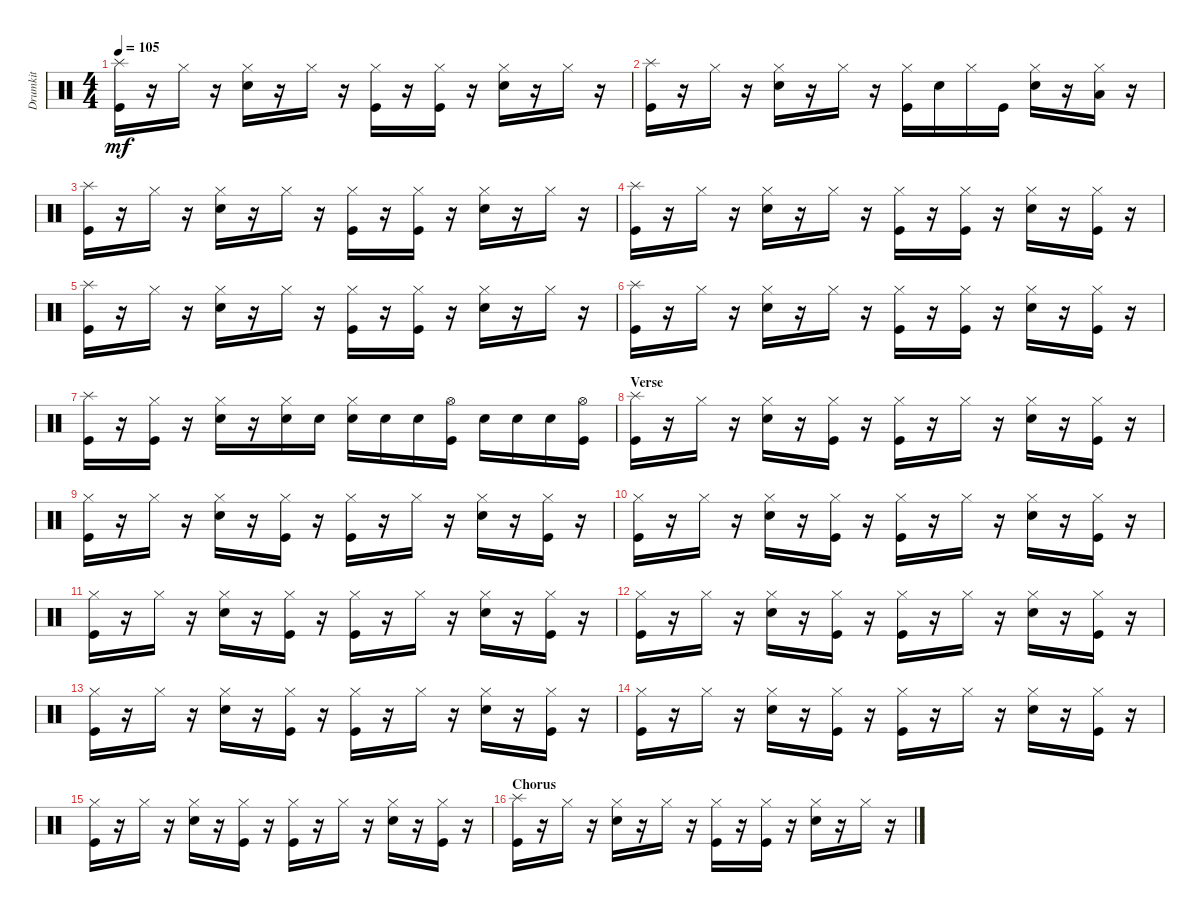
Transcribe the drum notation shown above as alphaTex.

\track ("Drumkit" "Drumkit") {instrument percussion}
\staff {score}
\articulation defaults
\ts (4 4)
\tempo 105
\clef neutral
\ks c
("Kick (hit)" "Splash (hit)").16{dy mf} r.16 "Hi-Hat (closed)".16 r.16 ("Hi-Hat (closed)" "Snare (hit) 2").16 r.16 "Hi-Hat (closed)".16 r.16 ("Hi-Hat (closed)" "Kick (hit)").16 r.16 ("Hi-Hat (closed)" "Kick (hit)").16 r.16 ("Hi-Hat (closed)" "Snare (hit) 2").16 r.16 "Hi-Hat (closed)".16 r.16 |
("Kick (hit)" "Splash (hit)").16 r.16 "Hi-Hat (closed)".16 r.16 ("Hi-Hat (closed)" "Snare (hit) 2").16 r.16 "Hi-Hat (closed)".16 r.16 ("Hi-Hat (closed)" "Kick (hit)").16 "Snare (hit) 2".16 "Hi-Hat (closed)".16 "Kick (hit)".16 ("Hi-Hat (closed)" "Snare (hit) 2").16 r.16 ("Low Tom (hit)" "Hi-Hat (closed)").16 r.16 |
("Kick (hit)" "Splash (hit)").16 r.16 "Hi-Hat (closed)".16 r.16 ("Hi-Hat (closed)" "Snare (hit) 2").16 r.16 "Hi-Hat (closed)".16 r.16 ("Hi-Hat (closed)" "Kick (hit)").16 r.16 ("Hi-Hat (closed)" "Kick (hit)").16 r.16 ("Hi-Hat (closed)" "Snare (hit) 2").16 r.16 "Hi-Hat (closed)".16 r.16 |
("Kick (hit)" "Splash (hit)").16 r.16 "Hi-Hat (closed)".16 r.16 ("Hi-Hat (closed)" "Snare (hit) 2").16 r.16 "Hi-Hat (closed)".16 r.16 ("Hi-Hat (closed)" "Kick (hit)").16 r.16 ("Hi-Hat (closed)" "Kick (hit)").16 r.16 ("Hi-Hat (closed)" "Snare (hit) 2").16 r.16 ("Hi-Hat (closed)" "Kick (hit)").16 r.16 |
("Kick (hit)" "Splash (hit)").16 r.16 "Hi-Hat (closed)".16 r.16 ("Hi-Hat (closed)" "Snare (hit) 2").16 r.16 "Hi-Hat (closed)".16 r.16 ("Hi-Hat (closed)" "Kick (hit)").16 r.16 ("Hi-Hat (closed)" "Kick (hit)").16 r.16 ("Hi-Hat (closed)" "Snare (hit) 2").16 r.16 "Hi-Hat (closed)".16 r.16 |
("Kick (hit)" "Splash (hit)").16 r.16 "Hi-Hat (closed)".16 r.16 ("Hi-Hat (closed)" "Snare (hit) 2").16 r.16 "Hi-Hat (closed)".16 r.16 ("Hi-Hat (closed)" "Kick (hit)").16 r.16 ("Hi-Hat (closed)" "Kick (hit)").16 r.16 ("Hi-Hat (closed)" "Snare (hit) 2").16 r.16 ("Hi-Hat (closed)" "Kick (hit)").16 r.16 |
("Kick (hit)" "Splash (hit)").16 r.16 ("Hi-Hat (closed)" "Kick (hit)").16 r.16 ("Hi-Hat (closed)" "Snare (hit) 2").16 r.16 ("Hi-Hat (closed)" "Snare (hit) 2").16 "Snare (hit) 2".16 ("Hi-Hat (closed)" "Snare (hit) 2").16 "Snare (hit) 2".16 "Snare (hit) 2".16 ("Kick (hit)" "Hi-Hat (open)").16 "Snare (hit) 2".16 "Snare (hit) 2".16 "Snare (hit) 2".16 ("Kick (hit)" "Hi-Hat (open)").16 |
\section ("" "Verse")
("Kick (hit)" "Splash (hit)").16 r.16 "Hi-Hat (closed)".16 r.16 ("Hi-Hat (closed)" "Snare (hit) 2").16 r.16 ("Hi-Hat (closed)" "Kick (hit)").16 r.16 ("Hi-Hat (closed)" "Kick (hit)").16 r.16 "Hi-Hat (closed)".16 r.16 ("Hi-Hat (closed)" "Snare (hit) 2").16 r.16 ("Hi-Hat (closed)" "Kick (hit)").16 r.16 |
("Kick (hit)" "Hi-Hat (closed)").16 r.16 "Hi-Hat (closed)".16 r.16 ("Hi-Hat (closed)" "Snare (hit) 2").16 r.16 ("Hi-Hat (closed)" "Kick (hit)").16 r.16 ("Hi-Hat (closed)" "Kick (hit)").16 r.16 "Hi-Hat (closed)".16 r.16 ("Hi-Hat (closed)" "Snare (hit) 2").16 r.16 ("Hi-Hat (closed)" "Kick (hit)").16 r.16 |
("Kick (hit)" "Hi-Hat (closed)").16 r.16 "Hi-Hat (closed)".16 r.16 ("Hi-Hat (closed)" "Snare (hit) 2").16 r.16 ("Hi-Hat (closed)" "Kick (hit)").16 r.16 ("Hi-Hat (closed)" "Kick (hit)").16 r.16 "Hi-Hat (closed)".16 r.16 ("Hi-Hat (closed)" "Snare (hit) 2").16 r.16 ("Hi-Hat (closed)" "Kick (hit)").16 r.16 |
("Kick (hit)" "Hi-Hat (closed)").16 r.16 "Hi-Hat (closed)".16 r.16 ("Hi-Hat (closed)" "Snare (hit) 2").16 r.16 ("Hi-Hat (closed)" "Kick (hit)").16 r.16 ("Hi-Hat (closed)" "Kick (hit)").16 r.16 "Hi-Hat (closed)".16 r.16 ("Hi-Hat (closed)" "Snare (hit) 2").16 r.16 ("Hi-Hat (closed)" "Kick (hit)").16 r.16 |
("Kick (hit)" "Hi-Hat (closed)").16 r.16 "Hi-Hat (closed)".16 r.16 ("Hi-Hat (closed)" "Snare (hit) 2").16 r.16 ("Hi-Hat (closed)" "Kick (hit)").16 r.16 ("Hi-Hat (closed)" "Kick (hit)").16 r.16 "Hi-Hat (closed)".16 r.16 ("Hi-Hat (closed)" "Snare (hit) 2").16 r.16 ("Hi-Hat (closed)" "Kick (hit)").16 r.16 |
("Kick (hit)" "Hi-Hat (closed)").16 r.16 "Hi-Hat (closed)".16 r.16 ("Hi-Hat (closed)" "Snare (hit) 2").16 r.16 ("Hi-Hat (closed)" "Kick (hit)").16 r.16 ("Hi-Hat (closed)" "Kick (hit)").16 r.16 "Hi-Hat (closed)".16 r.16 ("Hi-Hat (closed)" "Snare (hit) 2").16 r.16 ("Hi-Hat (closed)" "Kick (hit)").16 r.16 |
("Kick (hit)" "Hi-Hat (closed)").16 r.16 "Hi-Hat (closed)".16 r.16 ("Hi-Hat (closed)" "Snare (hit) 2").16 r.16 ("Hi-Hat (closed)" "Kick (hit)").16 r.16 ("Hi-Hat (closed)" "Kick (hit)").16 r.16 "Hi-Hat (closed)".16 r.16 ("Hi-Hat (closed)" "Snare (hit) 2").16 r.16 ("Hi-Hat (closed)" "Kick (hit)").16 r.16 |
("Kick (hit)" "Hi-Hat (closed)").16 r.16 "Hi-Hat (closed)".16 r.16 ("Hi-Hat (closed)" "Snare (hit) 2").16 r.16 ("Hi-Hat (closed)" "Kick (hit)").16 r.16 ("Hi-Hat (closed)" "Kick (hit)").16 r.16 "Hi-Hat (closed)".16 r.16 ("Hi-Hat (closed)" "Snare (hit) 2").16 r.16 ("Hi-Hat (closed)" "Kick (hit)").16 r.16 |
\section ("" "Chorus")
("Kick (hit)" "Splash (hit)").16 r.16 "Hi-Hat (closed)".16 r.16 ("Hi-Hat (closed)" "Snare (hit) 2").16 r.16 "Hi-Hat (closed)".16 r.16 ("Hi-Hat (closed)" "Kick (hit)").16 r.16 ("Hi-Hat (closed)" "Kick (hit)").16 r.16 ("Hi-Hat (closed)" "Snare (hit) 2").16 r.16 "Hi-Hat (closed)".16 r.16
